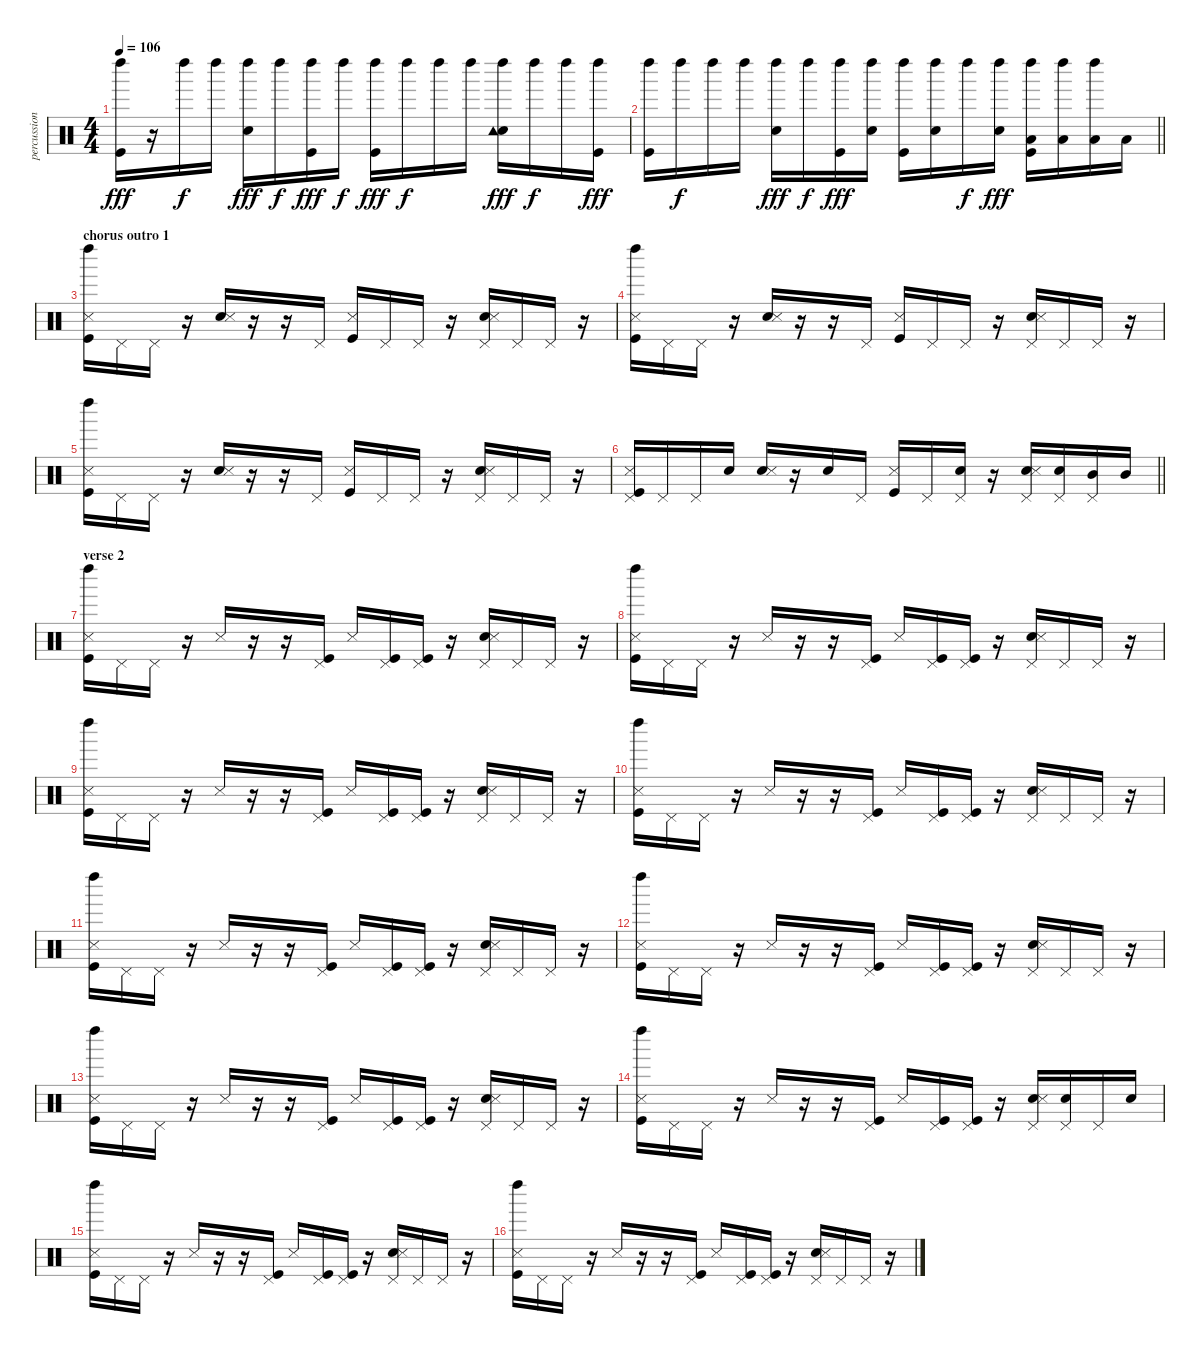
\track ("percussions" "percussion") {instrument percussion}
\staff {score}
\articulation defaults
\ts (4 4)
\tempo 106
\clef neutral
\ks c
("Left Maraca (hit)" "Kick (hit)").16{dy fff} r.16 "Left Maraca (hit)".16{dy f} "Left Maraca (hit)".16 ("Left Maraca (hit)" "Snare (hit) 2").16{dy fff} "Left Maraca (hit)".16{dy f} ("Left Maraca (hit)" "Kick (hit)").16{dy fff} "Left Maraca (hit)".16{dy f} ("Left Maraca (hit)" "Kick (hit)").16{dy fff} "Left Maraca (hit)".16{dy f} "Left Maraca (hit)".16 "Left Maraca (hit)".16 ("Left Maraca (hit)" "Snare (hit) 2" "Tambourine (hit)").16{dy fff} "Left Maraca (hit)".16{dy f} "Left Maraca (hit)".16 ("Left Maraca (hit)" "Kick (hit)").16{dy fff} |
\barLineRight lightlight
("Left Maraca (hit)" "Kick (hit)").16 "Left Maraca (hit)".16{dy f} "Left Maraca (hit)".16 "Left Maraca (hit)".16 ("Left Maraca (hit)" "Snare (hit) 2").16{dy fff} "Left Maraca (hit)".16{dy f} ("Left Maraca (hit)" "Kick (hit)").16{dy fff} ("Left Maraca (hit)" "Snare (hit) 2").16 ("Left Maraca (hit)" "Kick (hit)").16 ("Left Maraca (hit)" "Snare (hit) 2").16 "Left Maraca (hit)".16{dy f} ("Left Maraca (hit)" "Snare (hit) 2").16{dy fff} ("Left Maraca (hit)" "Low Tom (hit)" "Kick (hit)").16 ("Left Maraca (hit)" "Low Tom (hit)").16 ("Left Maraca (hit)" "Low Floor Tom (hit)").16 "Low Floor Tom (hit)".16 |
\section ("" "chorus outro 1")
("Left Maraca (hit)" "Kick (hit)" "Snare (side stick) 3").16 "Pedal Hi-Hat (hit)".16 "Pedal Hi-Hat (hit)".16 r.16 ("Snare (hit) 2" "Snare (side stick) 3").16 r.16 r.16 "Pedal Hi-Hat (hit)".16 ("Kick (hit)" "Snare (side stick) 3").16 "Pedal Hi-Hat (hit)".16 "Pedal Hi-Hat (hit)".16 r.16 ("Pedal Hi-Hat (hit)" "Snare (hit) 2" "Snare (side stick) 3").16 "Pedal Hi-Hat (hit)".16 "Pedal Hi-Hat (hit)".16 r.16 |
("Left Maraca (hit)" "Kick (hit)" "Snare (side stick) 3").16 "Pedal Hi-Hat (hit)".16 "Pedal Hi-Hat (hit)".16 r.16 ("Snare (hit) 2" "Snare (side stick) 3").16 r.16 r.16 "Pedal Hi-Hat (hit)".16 ("Kick (hit)" "Snare (side stick) 3").16 "Pedal Hi-Hat (hit)".16 "Pedal Hi-Hat (hit)".16 r.16 ("Pedal Hi-Hat (hit)" "Snare (hit) 2" "Snare (side stick) 3").16 "Pedal Hi-Hat (hit)".16 "Pedal Hi-Hat (hit)".16 r.16 |
("Left Maraca (hit)" "Kick (hit)" "Snare (side stick) 3").16 "Pedal Hi-Hat (hit)".16 "Pedal Hi-Hat (hit)".16 r.16 ("Snare (hit) 2" "Snare (side stick) 3").16 r.16 r.16 "Pedal Hi-Hat (hit)".16 ("Kick (hit)" "Snare (side stick) 3").16 "Pedal Hi-Hat (hit)".16 "Pedal Hi-Hat (hit)".16 r.16 ("Pedal Hi-Hat (hit)" "Snare (hit) 2" "Snare (side stick) 3").16 "Pedal Hi-Hat (hit)".16 "Pedal Hi-Hat (hit)".16 r.16 |
\barLineRight lightlight
("Pedal Hi-Hat (hit)" "Kick (hit)" "Snare (side stick) 3").16 "Pedal Hi-Hat (hit)".16 "Pedal Hi-Hat (hit)".16 "Snare (hit) 2".16 ("Snare (hit) 2" "Snare (side stick) 3").16 r.16 "Snare (hit) 2".16 "Pedal Hi-Hat (hit)".16 ("Kick (hit)" "Snare (side stick) 3").16 "Pedal Hi-Hat (hit)".16 ("Pedal Hi-Hat (hit)" "Snare (hit) 2").16 r.16 ("Pedal Hi-Hat (hit)" "Snare (hit) 2" "Snare (side stick) 3").16 ("Pedal Hi-Hat (hit)" "Snare (hit) 2").16 ("Pedal Hi-Hat (hit)" "Mid Tom (hit)").16 "Mid Tom (hit)".16 |
\section ("" "verse 2")
("Left Maraca (hit)" "Kick (hit)" "Snare (side stick) 3").16 "Pedal Hi-Hat (hit)".16 "Pedal Hi-Hat (hit)".16 r.16 "Snare (side stick) 3".16 r.16 r.16 ("Pedal Hi-Hat (hit)" "Kick (hit)").16 "Snare (side stick) 3".16 ("Pedal Hi-Hat (hit)" "Kick (hit)").16 ("Pedal Hi-Hat (hit)" "Kick (hit)").16 r.16 ("Pedal Hi-Hat (hit)" "Snare (hit) 2" "Snare (side stick) 3").16 "Pedal Hi-Hat (hit)".16 "Pedal Hi-Hat (hit)".16 r.16 |
("Left Maraca (hit)" "Kick (hit)" "Snare (side stick) 3").16 "Pedal Hi-Hat (hit)".16 "Pedal Hi-Hat (hit)".16 r.16 "Snare (side stick) 3".16 r.16 r.16 ("Pedal Hi-Hat (hit)" "Kick (hit)").16 "Snare (side stick) 3".16 ("Pedal Hi-Hat (hit)" "Kick (hit)").16 ("Pedal Hi-Hat (hit)" "Kick (hit)").16 r.16 ("Pedal Hi-Hat (hit)" "Snare (hit) 2" "Snare (side stick) 3").16 "Pedal Hi-Hat (hit)".16 "Pedal Hi-Hat (hit)".16 r.16 |
("Left Maraca (hit)" "Kick (hit)" "Snare (side stick) 3").16 "Pedal Hi-Hat (hit)".16 "Pedal Hi-Hat (hit)".16 r.16 "Snare (side stick) 3".16 r.16 r.16 ("Pedal Hi-Hat (hit)" "Kick (hit)").16 "Snare (side stick) 3".16 ("Pedal Hi-Hat (hit)" "Kick (hit)").16 ("Pedal Hi-Hat (hit)" "Kick (hit)").16 r.16 ("Pedal Hi-Hat (hit)" "Snare (hit) 2" "Snare (side stick) 3").16 "Pedal Hi-Hat (hit)".16 "Pedal Hi-Hat (hit)".16 r.16 |
("Left Maraca (hit)" "Kick (hit)" "Snare (side stick) 3").16 "Pedal Hi-Hat (hit)".16 "Pedal Hi-Hat (hit)".16 r.16 "Snare (side stick) 3".16 r.16 r.16 ("Pedal Hi-Hat (hit)" "Kick (hit)").16 "Snare (side stick) 3".16 ("Pedal Hi-Hat (hit)" "Kick (hit)").16 ("Pedal Hi-Hat (hit)" "Kick (hit)").16 r.16 ("Pedal Hi-Hat (hit)" "Snare (hit) 2" "Snare (side stick) 3").16 "Pedal Hi-Hat (hit)".16 "Pedal Hi-Hat (hit)".16 r.16 |
("Left Maraca (hit)" "Kick (hit)" "Snare (side stick) 3").16 "Pedal Hi-Hat (hit)".16 "Pedal Hi-Hat (hit)".16 r.16 "Snare (side stick) 3".16 r.16 r.16 ("Pedal Hi-Hat (hit)" "Kick (hit)").16 "Snare (side stick) 3".16 ("Pedal Hi-Hat (hit)" "Kick (hit)").16 ("Pedal Hi-Hat (hit)" "Kick (hit)").16 r.16 ("Pedal Hi-Hat (hit)" "Snare (hit) 2" "Snare (side stick) 3").16 "Pedal Hi-Hat (hit)".16 "Pedal Hi-Hat (hit)".16 r.16 |
("Left Maraca (hit)" "Kick (hit)" "Snare (side stick) 3").16 "Pedal Hi-Hat (hit)".16 "Pedal Hi-Hat (hit)".16 r.16 "Snare (side stick) 3".16 r.16 r.16 ("Pedal Hi-Hat (hit)" "Kick (hit)").16 "Snare (side stick) 3".16 ("Pedal Hi-Hat (hit)" "Kick (hit)").16 ("Pedal Hi-Hat (hit)" "Kick (hit)").16 r.16 ("Pedal Hi-Hat (hit)" "Snare (hit) 2" "Snare (side stick) 3").16 "Pedal Hi-Hat (hit)".16 "Pedal Hi-Hat (hit)".16 r.16 |
("Left Maraca (hit)" "Kick (hit)" "Snare (side stick) 3").16 "Pedal Hi-Hat (hit)".16 "Pedal Hi-Hat (hit)".16 r.16 "Snare (side stick) 3".16 r.16 r.16 ("Pedal Hi-Hat (hit)" "Kick (hit)").16 "Snare (side stick) 3".16 ("Pedal Hi-Hat (hit)" "Kick (hit)").16 ("Pedal Hi-Hat (hit)" "Kick (hit)").16 r.16 ("Pedal Hi-Hat (hit)" "Snare (hit) 2" "Snare (side stick) 3").16 "Pedal Hi-Hat (hit)".16 "Pedal Hi-Hat (hit)".16 r.16 |
("Left Maraca (hit)" "Kick (hit)" "Snare (side stick) 3").16 "Pedal Hi-Hat (hit)".16 "Pedal Hi-Hat (hit)".16 r.16 "Snare (side stick) 3".16 r.16 r.16 ("Pedal Hi-Hat (hit)" "Kick (hit)").16 "Snare (side stick) 3".16 ("Pedal Hi-Hat (hit)" "Kick (hit)").16 ("Pedal Hi-Hat (hit)" "Kick (hit)").16 r.16 ("Pedal Hi-Hat (hit)" "Snare (hit) 2" "Snare (side stick) 3").16 ("Pedal Hi-Hat (hit)" "Snare (hit) 2").16 "Pedal Hi-Hat (hit)".16 "Snare (hit) 2".16 |
("Left Maraca (hit)" "Kick (hit)" "Snare (side stick) 3").16 "Pedal Hi-Hat (hit)".16 "Pedal Hi-Hat (hit)".16 r.16 "Snare (side stick) 3".16 r.16 r.16 ("Pedal Hi-Hat (hit)" "Kick (hit)").16 "Snare (side stick) 3".16 ("Pedal Hi-Hat (hit)" "Kick (hit)").16 ("Pedal Hi-Hat (hit)" "Kick (hit)").16 r.16 ("Pedal Hi-Hat (hit)" "Snare (hit) 2" "Snare (side stick) 3").16 "Pedal Hi-Hat (hit)".16 "Pedal Hi-Hat (hit)".16 r.16 |
("Left Maraca (hit)" "Kick (hit)" "Snare (side stick) 3").16 "Pedal Hi-Hat (hit)".16 "Pedal Hi-Hat (hit)".16 r.16 "Snare (side stick) 3".16 r.16 r.16 ("Pedal Hi-Hat (hit)" "Kick (hit)").16 "Snare (side stick) 3".16 ("Pedal Hi-Hat (hit)" "Kick (hit)").16 ("Pedal Hi-Hat (hit)" "Kick (hit)").16 r.16 ("Pedal Hi-Hat (hit)" "Snare (hit) 2" "Snare (side stick) 3").16 "Pedal Hi-Hat (hit)".16 "Pedal Hi-Hat (hit)".16 r.16
